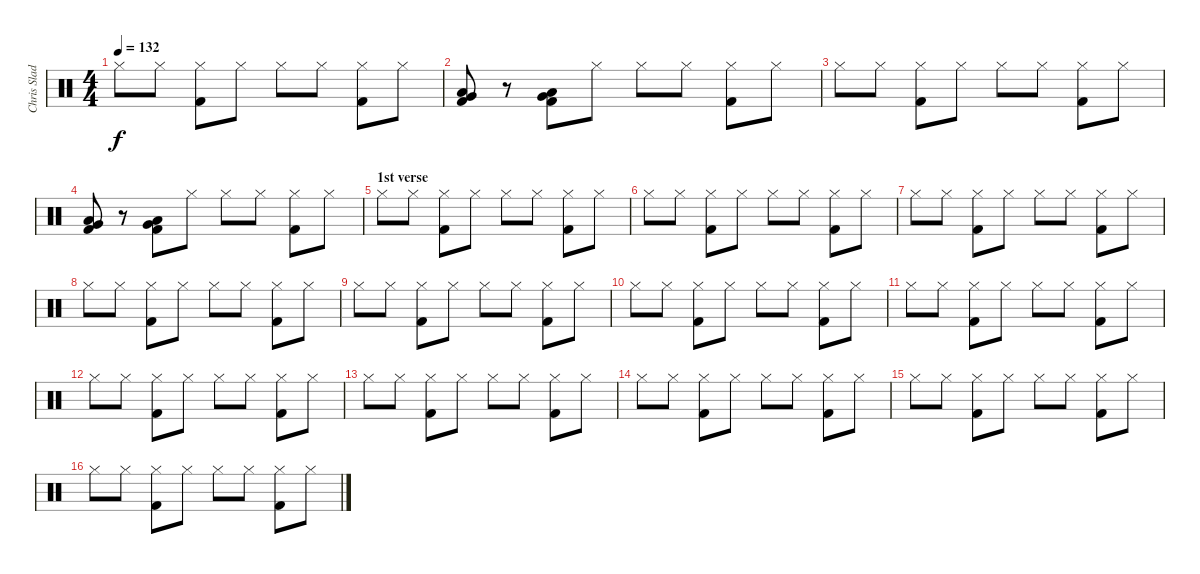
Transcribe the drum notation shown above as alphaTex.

\track ("Chris Slade" "Chris Slad") {instrument percussion}
\staff {score}
\articulation defaults
\ts (4 4)
\tempo 132
\clef neutral
\ks c "Hi-Hat (closed)".8{dy f} "Hi-Hat (closed)".8
("Kick (hit) 2" "Hi-Hat (closed)").8 "Hi-Hat (closed)".8 "Hi-Hat (closed)".8 "Hi-Hat (closed)".8 ("Kick (hit) 2" "Hi-Hat (closed)").8 "Hi-Hat (closed)".8 |
("Kick (hit) 2" "Very Low Tom (hit)" "Low Floor Tom (hit)").8 r.8 ("Kick (hit) 2" "Very Low Tom (hit)" "Low Floor Tom (hit)").8 "Hi-Hat (closed)".8 "Hi-Hat (closed)".8 "Hi-Hat (closed)".8 ("Kick (hit) 2" "Hi-Hat (closed)").8 "Hi-Hat (closed)".8 |
"Hi-Hat (closed)".8 "Hi-Hat (closed)".8 ("Kick (hit) 2" "Hi-Hat (closed)").8 "Hi-Hat (closed)".8 "Hi-Hat (closed)".8 "Hi-Hat (closed)".8 ("Kick (hit) 2" "Hi-Hat (closed)").8 "Hi-Hat (closed)".8 |
("Kick (hit) 2" "Very Low Tom (hit)" "Low Floor Tom (hit)").8 r.8 ("Kick (hit) 2" "Very Low Tom (hit)" "Low Floor Tom (hit)").8 "Hi-Hat (closed)".8 "Hi-Hat (closed)".8 "Hi-Hat (closed)".8 ("Kick (hit) 2" "Hi-Hat (closed)").8 "Hi-Hat (closed)".8 |
\section ("" "1st verse")
"Hi-Hat (closed)".8 "Hi-Hat (closed)".8 ("Kick (hit) 2" "Hi-Hat (closed)").8 "Hi-Hat (closed)".8 "Hi-Hat (closed)".8 "Hi-Hat (closed)".8 ("Kick (hit) 2" "Hi-Hat (closed)").8 "Hi-Hat (closed)".8 |
"Hi-Hat (closed)".8 "Hi-Hat (closed)".8 ("Kick (hit) 2" "Hi-Hat (closed)").8 "Hi-Hat (closed)".8 "Hi-Hat (closed)".8 "Hi-Hat (closed)".8 ("Kick (hit) 2" "Hi-Hat (closed)").8 "Hi-Hat (closed)".8 |
"Hi-Hat (closed)".8 "Hi-Hat (closed)".8 ("Kick (hit) 2" "Hi-Hat (closed)").8 "Hi-Hat (closed)".8 "Hi-Hat (closed)".8 "Hi-Hat (closed)".8 ("Kick (hit) 2" "Hi-Hat (closed)").8 "Hi-Hat (closed)".8 |
"Hi-Hat (closed)".8 "Hi-Hat (closed)".8 ("Kick (hit) 2" "Hi-Hat (closed)").8 "Hi-Hat (closed)".8 "Hi-Hat (closed)".8 "Hi-Hat (closed)".8 ("Kick (hit) 2" "Hi-Hat (closed)").8 "Hi-Hat (closed)".8 |
"Hi-Hat (closed)".8 "Hi-Hat (closed)".8 ("Kick (hit) 2" "Hi-Hat (closed)").8 "Hi-Hat (closed)".8 "Hi-Hat (closed)".8 "Hi-Hat (closed)".8 ("Kick (hit) 2" "Hi-Hat (closed)").8 "Hi-Hat (closed)".8 |
"Hi-Hat (closed)".8 "Hi-Hat (closed)".8 ("Kick (hit) 2" "Hi-Hat (closed)").8 "Hi-Hat (closed)".8 "Hi-Hat (closed)".8 "Hi-Hat (closed)".8 ("Kick (hit) 2" "Hi-Hat (closed)").8 "Hi-Hat (closed)".8 |
"Hi-Hat (closed)".8 "Hi-Hat (closed)".8 ("Kick (hit) 2" "Hi-Hat (closed)").8 "Hi-Hat (closed)".8 "Hi-Hat (closed)".8 "Hi-Hat (closed)".8 ("Kick (hit) 2" "Hi-Hat (closed)").8 "Hi-Hat (closed)".8 |
"Hi-Hat (closed)".8 "Hi-Hat (closed)".8 ("Kick (hit) 2" "Hi-Hat (closed)").8 "Hi-Hat (closed)".8 "Hi-Hat (closed)".8 "Hi-Hat (closed)".8 ("Kick (hit) 2" "Hi-Hat (closed)").8 "Hi-Hat (closed)".8 |
"Hi-Hat (closed)".8 "Hi-Hat (closed)".8 ("Kick (hit) 2" "Hi-Hat (closed)").8 "Hi-Hat (closed)".8 "Hi-Hat (closed)".8 "Hi-Hat (closed)".8 ("Kick (hit) 2" "Hi-Hat (closed)").8 "Hi-Hat (closed)".8 |
"Hi-Hat (closed)".8 "Hi-Hat (closed)".8 ("Kick (hit) 2" "Hi-Hat (closed)").8 "Hi-Hat (closed)".8 "Hi-Hat (closed)".8 "Hi-Hat (closed)".8 ("Kick (hit) 2" "Hi-Hat (closed)").8 "Hi-Hat (closed)".8 |
"Hi-Hat (closed)".8 "Hi-Hat (closed)".8 ("Kick (hit) 2" "Hi-Hat (closed)").8 "Hi-Hat (closed)".8 "Hi-Hat (closed)".8 "Hi-Hat (closed)".8 ("Kick (hit) 2" "Hi-Hat (closed)").8 "Hi-Hat (closed)".8 |
"Hi-Hat (closed)".8 "Hi-Hat (closed)".8 ("Kick (hit) 2" "Hi-Hat (closed)").8 "Hi-Hat (closed)".8 "Hi-Hat (closed)".8 "Hi-Hat (closed)".8 ("Kick (hit) 2" "Hi-Hat (closed)").8 "Hi-Hat (closed)".8
